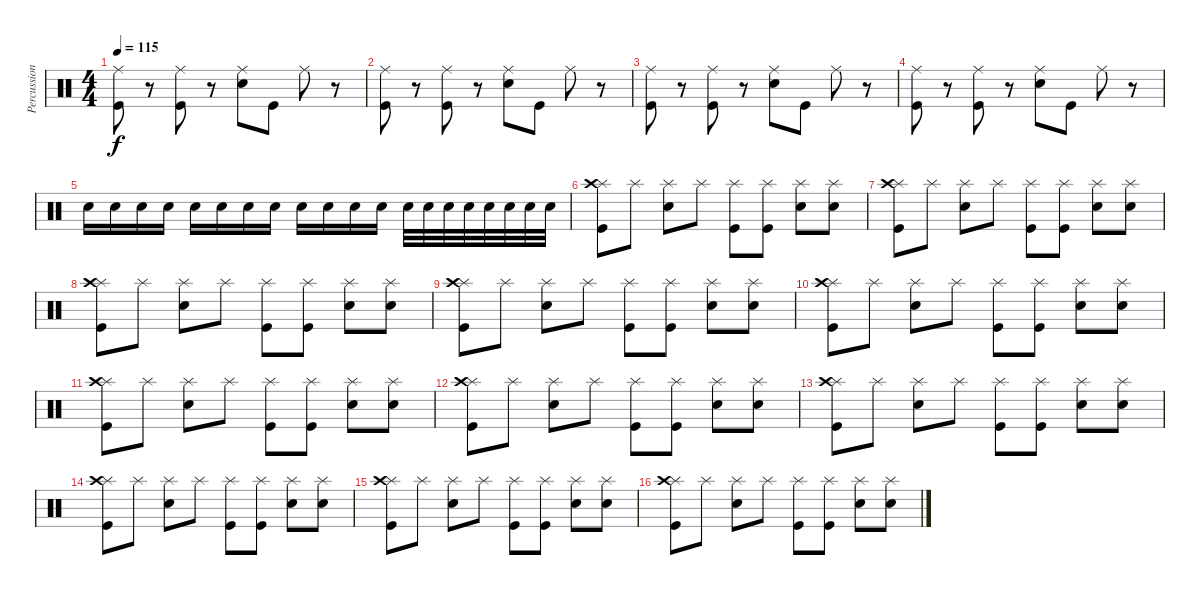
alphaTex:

\track ("Percussions" "Percussion") {instrument percussion}
\staff {score}
\articulation defaults
\ts (4 4)
\tempo 115
\clef neutral
\ks c
("Ride (middle)" "Kick (hit)").8{dy f volume 7} r.8 ("Ride (middle)" "Kick (hit)").8 r.8 ("Ride (middle)" "Electric Snare (hit)").8 "Kick (hit)".8 "Ride (middle)".8 r.8 |
("Ride (middle)" "Kick (hit)").8 r.8 ("Ride (middle)" "Kick (hit)").8 r.8 ("Ride (middle)" "Electric Snare (hit)").8 "Kick (hit)".8 "Ride (middle)".8 r.8 |
("Ride (middle)" "Kick (hit)").8 r.8 ("Ride (middle)" "Kick (hit)").8 r.8 ("Ride (middle)" "Electric Snare (hit)").8 "Kick (hit)".8 "Ride (middle)".8 r.8 |
("Ride (middle)" "Kick (hit)").8 r.8 ("Ride (middle)" "Kick (hit)").8 r.8 ("Ride (middle)" "Electric Snare (hit)").8 "Kick (hit)".8 "Ride (middle)".8 r.8 |
"Electric Snare (hit)".16 "Electric Snare (hit)".16 "Electric Snare (hit)".16 "Electric Snare (hit)".16 "Electric Snare (hit)".16 "Electric Snare (hit)".16 "Electric Snare (hit)".16 "Electric Snare (hit)".16 "Electric Snare (hit)".16 "Electric Snare (hit)".16 "Electric Snare (hit)".16 "Electric Snare (hit)".16 "Electric Snare (hit)".32 "Electric Snare (hit)".32 "Electric Snare (hit)".32 "Electric Snare (hit)".32 "Electric Snare (hit)".32 "Electric Snare (hit)".32 "Electric Snare (hit)".32 "Electric Snare (hit)".32 |
("Splash (hit)" "Crash high (hit)" "Kick (hit)").8 "Splash (hit)".8 ("Splash (hit)" "Electric Snare (hit)").8 "Splash (hit)".8 ("Splash (hit)" "Kick (hit)").8 ("Splash (hit)" "Kick (hit)").8 ("Splash (hit)" "Electric Snare (hit)").8 ("Splash (hit)" "Electric Snare (hit)").8 |
("Splash (hit)" "Crash high (hit)" "Kick (hit)").8 "Splash (hit)".8 ("Splash (hit)" "Electric Snare (hit)").8 "Splash (hit)".8 ("Splash (hit)" "Kick (hit)").8 ("Splash (hit)" "Kick (hit)").8 ("Splash (hit)" "Electric Snare (hit)").8 ("Splash (hit)" "Electric Snare (hit)").8 |
("Splash (hit)" "Crash high (hit)" "Kick (hit)").8 "Splash (hit)".8 ("Splash (hit)" "Electric Snare (hit)").8 "Splash (hit)".8 ("Splash (hit)" "Kick (hit)").8 ("Splash (hit)" "Kick (hit)").8 ("Splash (hit)" "Electric Snare (hit)").8 ("Splash (hit)" "Electric Snare (hit)").8 |
("Splash (hit)" "Crash high (hit)" "Kick (hit)").8 "Splash (hit)".8 ("Splash (hit)" "Electric Snare (hit)").8 "Splash (hit)".8 ("Splash (hit)" "Kick (hit)").8 ("Splash (hit)" "Kick (hit)").8 ("Splash (hit)" "Electric Snare (hit)").8 ("Splash (hit)" "Electric Snare (hit)").8 |
("Splash (hit)" "Crash high (hit)" "Kick (hit)").8 "Splash (hit)".8 ("Splash (hit)" "Electric Snare (hit)").8 "Splash (hit)".8 ("Splash (hit)" "Kick (hit)").8 ("Splash (hit)" "Kick (hit)").8 ("Splash (hit)" "Electric Snare (hit)").8 ("Splash (hit)" "Electric Snare (hit)").8 |
("Splash (hit)" "Crash high (hit)" "Kick (hit)").8 "Splash (hit)".8 ("Splash (hit)" "Electric Snare (hit)").8 "Splash (hit)".8 ("Splash (hit)" "Kick (hit)").8 ("Splash (hit)" "Kick (hit)").8 ("Splash (hit)" "Electric Snare (hit)").8 ("Splash (hit)" "Electric Snare (hit)").8 |
("Splash (hit)" "Crash high (hit)" "Kick (hit)").8 "Splash (hit)".8 ("Splash (hit)" "Electric Snare (hit)").8 "Splash (hit)".8 ("Splash (hit)" "Kick (hit)").8 ("Splash (hit)" "Kick (hit)").8 ("Splash (hit)" "Electric Snare (hit)").8 ("Splash (hit)" "Electric Snare (hit)").8 |
("Splash (hit)" "Crash high (hit)" "Kick (hit)").8 "Splash (hit)".8 ("Splash (hit)" "Electric Snare (hit)").8 "Splash (hit)".8 ("Splash (hit)" "Kick (hit)").8 ("Splash (hit)" "Kick (hit)").8 ("Splash (hit)" "Electric Snare (hit)").8 ("Splash (hit)" "Electric Snare (hit)").8 |
("Splash (hit)" "Crash high (hit)" "Kick (hit)").8 "Splash (hit)".8 ("Splash (hit)" "Electric Snare (hit)").8 "Splash (hit)".8 ("Splash (hit)" "Kick (hit)").8 ("Splash (hit)" "Kick (hit)").8 ("Splash (hit)" "Electric Snare (hit)").8 ("Splash (hit)" "Electric Snare (hit)").8 |
("Splash (hit)" "Crash high (hit)" "Kick (hit)").8 "Splash (hit)".8 ("Splash (hit)" "Electric Snare (hit)").8 "Splash (hit)".8 ("Splash (hit)" "Kick (hit)").8 ("Splash (hit)" "Kick (hit)").8 ("Splash (hit)" "Electric Snare (hit)").8 ("Splash (hit)" "Electric Snare (hit)").8 |
("Splash (hit)" "Crash high (hit)" "Kick (hit)").8{volume 0} "Splash (hit)".8 ("Splash (hit)" "Electric Snare (hit)").8 "Splash (hit)".8 ("Splash (hit)" "Kick (hit)").8 ("Splash (hit)" "Kick (hit)").8 ("Splash (hit)" "Electric Snare (hit)").8 ("Splash (hit)" "Electric Snare (hit)").8
